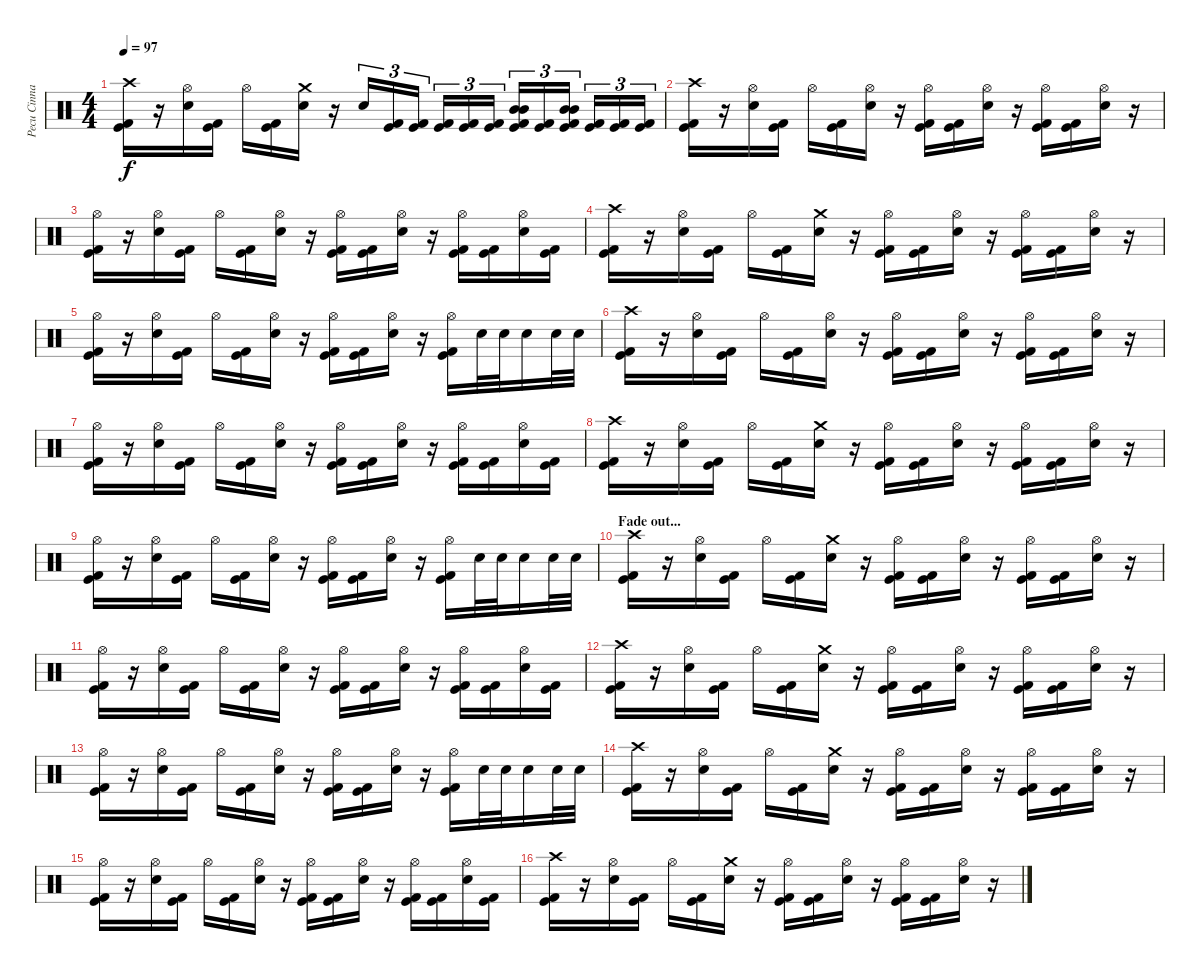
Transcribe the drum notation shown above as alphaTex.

\track ("Pecu Cinnari" "Pecu Cinna") {instrument percussion}
\staff {score}
\articulation defaults
\ts (4 4)
\tempo 97
\clef neutral
\ks c
("Crash high (hit)" "Kick (hit)" "Kick (hit) 2").16{dy f} r.16 ("Hi-Hat (open)" "Electric Snare (hit)").16 ("Kick (hit)" "Kick (hit) 2").16 "Hi-Hat (open)".16 ("Kick (hit)" "Kick (hit) 2").16 ("Crash medium (hit)" "Electric Snare (hit)").16 r.16 "Electric Snare (hit)".16{tu (3 2)} ("Kick (hit)" "Kick (hit) 2").16{tu (3 2)} ("Kick (hit)" "Kick (hit) 2").16{tu (3 2)} ("Kick (hit)" "Kick (hit) 2").16{tu (3 2)} ("Kick (hit)" "Kick (hit) 2").16{tu (3 2)} ("Kick (hit)" "Kick (hit) 2").16{tu (3 2)} ("Mid Tom (hit)" "Mid Tom (hit)" "Kick (hit)" "Kick (hit) 2").16{tu (3 2)} ("Kick (hit)" "Kick (hit) 2").16{tu (3 2)} ("Mid Tom (hit)" "Mid Tom (hit)" "Kick (hit)" "Kick (hit) 2").16{tu (3 2)} ("Kick (hit)" "Kick (hit) 2").16{tu (3 2)} ("Kick (hit)" "Kick (hit) 2").16{tu (3 2)} ("Kick (hit)" "Kick (hit) 2").16{tu (3 2)} |
("Crash high (hit)" "Kick (hit)" "Kick (hit) 2").16 r.16 ("Hi-Hat (open)" "Electric Snare (hit)").16 ("Kick (hit)" "Kick (hit) 2").16 "Hi-Hat (open)".16 ("Kick (hit)" "Kick (hit) 2").16 ("Hi-Hat (open)" "Electric Snare (hit)").16 r.16 ("Hi-Hat (open)" "Kick (hit)" "Kick (hit) 2").16 ("Kick (hit)" "Kick (hit) 2").16 ("Hi-Hat (open)" "Electric Snare (hit)").16 r.16 ("Hi-Hat (open)" "Kick (hit)" "Kick (hit) 2").16 ("Kick (hit)" "Kick (hit) 2").16 ("Hi-Hat (open)" "Electric Snare (hit)").16 r.16 |
("Hi-Hat (open)" "Kick (hit)" "Kick (hit) 2").16 r.16 ("Hi-Hat (open)" "Electric Snare (hit)").16 ("Kick (hit)" "Kick (hit) 2").16 "Hi-Hat (open)".16 ("Kick (hit)" "Kick (hit) 2").16 ("Hi-Hat (open)" "Electric Snare (hit)").16 r.16 ("Hi-Hat (open)" "Kick (hit)" "Kick (hit) 2").16 ("Kick (hit)" "Kick (hit) 2").16 ("Hi-Hat (open)" "Electric Snare (hit)").16 r.16 ("Hi-Hat (open)" "Kick (hit)" "Kick (hit) 2").16 ("Kick (hit)" "Kick (hit) 2").16 ("Hi-Hat (open)" "Electric Snare (hit)").16 ("Kick (hit)" "Kick (hit) 2").16 |
("Crash high (hit)" "Kick (hit)" "Kick (hit) 2").16 r.16 ("Hi-Hat (open)" "Electric Snare (hit)").16 ("Kick (hit)" "Kick (hit) 2").16 "Hi-Hat (open)".16 ("Kick (hit)" "Kick (hit) 2").16 ("Crash medium (hit)" "Electric Snare (hit)").16 r.16 ("Hi-Hat (open)" "Kick (hit)" "Kick (hit) 2").16 ("Kick (hit)" "Kick (hit) 2").16 ("Hi-Hat (open)" "Electric Snare (hit)").16 r.16 ("Hi-Hat (open)" "Kick (hit)" "Kick (hit) 2").16 ("Kick (hit)" "Kick (hit) 2").16 ("Hi-Hat (open)" "Electric Snare (hit)").16 r.16 |
("Hi-Hat (open)" "Kick (hit)" "Kick (hit) 2").16 r.16 ("Hi-Hat (open)" "Electric Snare (hit)").16 ("Kick (hit)" "Kick (hit) 2").16 "Hi-Hat (open)".16 ("Kick (hit)" "Kick (hit) 2").16 ("Hi-Hat (open)" "Electric Snare (hit)").16 r.16 ("Hi-Hat (open)" "Kick (hit)" "Kick (hit) 2").16 ("Kick (hit)" "Kick (hit) 2").16 ("Hi-Hat (open)" "Electric Snare (hit)").16 r.16 ("Hi-Hat (open)" "Kick (hit)" "Kick (hit) 2").16 "Electric Snare (hit)".32 "Electric Snare (hit)".32 "Electric Snare (hit)".16 "Electric Snare (hit)".32 "Electric Snare (hit)".32 |
("Crash high (hit)" "Kick (hit)" "Kick (hit) 2").16 r.16 ("Hi-Hat (open)" "Electric Snare (hit)").16 ("Kick (hit)" "Kick (hit) 2").16 "Hi-Hat (open)".16 ("Kick (hit)" "Kick (hit) 2").16 ("Hi-Hat (open)" "Electric Snare (hit)").16 r.16 ("Hi-Hat (open)" "Kick (hit)" "Kick (hit) 2").16 ("Kick (hit)" "Kick (hit) 2").16 ("Hi-Hat (open)" "Electric Snare (hit)").16 r.16 ("Hi-Hat (open)" "Kick (hit)" "Kick (hit) 2").16 ("Kick (hit)" "Kick (hit) 2").16 ("Hi-Hat (open)" "Electric Snare (hit)").16 r.16 |
("Hi-Hat (open)" "Kick (hit)" "Kick (hit) 2").16 r.16 ("Hi-Hat (open)" "Electric Snare (hit)").16 ("Kick (hit)" "Kick (hit) 2").16 "Hi-Hat (open)".16 ("Kick (hit)" "Kick (hit) 2").16 ("Hi-Hat (open)" "Electric Snare (hit)").16 r.16 ("Hi-Hat (open)" "Kick (hit)" "Kick (hit) 2").16 ("Kick (hit)" "Kick (hit) 2").16 ("Hi-Hat (open)" "Electric Snare (hit)").16 r.16 ("Hi-Hat (open)" "Kick (hit)" "Kick (hit) 2").16 ("Kick (hit)" "Kick (hit) 2").16 ("Hi-Hat (open)" "Electric Snare (hit)").16 ("Kick (hit)" "Kick (hit) 2").16 |
("Crash high (hit)" "Kick (hit)" "Kick (hit) 2").16 r.16 ("Hi-Hat (open)" "Electric Snare (hit)").16 ("Kick (hit)" "Kick (hit) 2").16 "Hi-Hat (open)".16 ("Kick (hit)" "Kick (hit) 2").16 ("Crash medium (hit)" "Electric Snare (hit)").16 r.16 ("Hi-Hat (open)" "Kick (hit)" "Kick (hit) 2").16 ("Kick (hit)" "Kick (hit) 2").16 ("Hi-Hat (open)" "Electric Snare (hit)").16 r.16 ("Hi-Hat (open)" "Kick (hit)" "Kick (hit) 2").16 ("Kick (hit)" "Kick (hit) 2").16 ("Hi-Hat (open)" "Electric Snare (hit)").16 r.16 |
("Hi-Hat (open)" "Kick (hit)" "Kick (hit) 2").16 r.16 ("Hi-Hat (open)" "Electric Snare (hit)").16 ("Kick (hit)" "Kick (hit) 2").16 "Hi-Hat (open)".16 ("Kick (hit)" "Kick (hit) 2").16 ("Hi-Hat (open)" "Electric Snare (hit)").16 r.16 ("Hi-Hat (open)" "Kick (hit)" "Kick (hit) 2").16 ("Kick (hit)" "Kick (hit) 2").16 ("Hi-Hat (open)" "Electric Snare (hit)").16 r.16 ("Hi-Hat (open)" "Kick (hit)" "Kick (hit) 2").16 "Electric Snare (hit)".32 "Electric Snare (hit)".32 "Electric Snare (hit)".16 "Electric Snare (hit)".32 "Electric Snare (hit)".32 |
\section ("" "Fade out...")
("Crash high (hit)" "Kick (hit)" "Kick (hit) 2").16 r.16 ("Hi-Hat (open)" "Electric Snare (hit)").16 ("Kick (hit)" "Kick (hit) 2").16 "Hi-Hat (open)".16 ("Kick (hit)" "Kick (hit) 2").16 ("Crash medium (hit)" "Electric Snare (hit)").16 r.16 ("Hi-Hat (open)" "Kick (hit)" "Kick (hit) 2").16 ("Kick (hit)" "Kick (hit) 2").16 ("Hi-Hat (open)" "Electric Snare (hit)").16 r.16 ("Hi-Hat (open)" "Kick (hit)" "Kick (hit) 2").16 ("Kick (hit)" "Kick (hit) 2").16 ("Hi-Hat (open)" "Electric Snare (hit)").16 r.16 |
("Hi-Hat (open)" "Kick (hit)" "Kick (hit) 2").16 r.16 ("Hi-Hat (open)" "Electric Snare (hit)").16 ("Kick (hit)" "Kick (hit) 2").16 "Hi-Hat (open)".16 ("Kick (hit)" "Kick (hit) 2").16 ("Hi-Hat (open)" "Electric Snare (hit)").16 r.16 ("Hi-Hat (open)" "Kick (hit)" "Kick (hit) 2").16 ("Kick (hit)" "Kick (hit) 2").16 ("Hi-Hat (open)" "Electric Snare (hit)").16 r.16 ("Hi-Hat (open)" "Kick (hit)" "Kick (hit) 2").16 ("Kick (hit)" "Kick (hit) 2").16 ("Hi-Hat (open)" "Electric Snare (hit)").16 ("Kick (hit)" "Kick (hit) 2").16 |
("Crash high (hit)" "Kick (hit)" "Kick (hit) 2").16 r.16 ("Hi-Hat (open)" "Electric Snare (hit)").16 ("Kick (hit)" "Kick (hit) 2").16 "Hi-Hat (open)".16 ("Kick (hit)" "Kick (hit) 2").16 ("Crash medium (hit)" "Electric Snare (hit)").16 r.16 ("Hi-Hat (open)" "Kick (hit)" "Kick (hit) 2").16 ("Kick (hit)" "Kick (hit) 2").16 ("Hi-Hat (open)" "Electric Snare (hit)").16 r.16 ("Hi-Hat (open)" "Kick (hit)" "Kick (hit) 2").16 ("Kick (hit)" "Kick (hit) 2").16 ("Hi-Hat (open)" "Electric Snare (hit)").16 r.16 |
("Hi-Hat (open)" "Kick (hit)" "Kick (hit) 2").16 r.16 ("Hi-Hat (open)" "Electric Snare (hit)").16 ("Kick (hit)" "Kick (hit) 2").16 "Hi-Hat (open)".16 ("Kick (hit)" "Kick (hit) 2").16 ("Hi-Hat (open)" "Electric Snare (hit)").16 r.16 ("Hi-Hat (open)" "Kick (hit)" "Kick (hit) 2").16 ("Kick (hit)" "Kick (hit) 2").16 ("Hi-Hat (open)" "Electric Snare (hit)").16 r.16 ("Hi-Hat (open)" "Kick (hit)" "Kick (hit) 2").16 "Electric Snare (hit)".32 "Electric Snare (hit)".32 "Electric Snare (hit)".16 "Electric Snare (hit)".32 "Electric Snare (hit)".32 |
("Crash high (hit)" "Kick (hit)" "Kick (hit) 2").16 r.16 ("Hi-Hat (open)" "Electric Snare (hit)").16 ("Kick (hit)" "Kick (hit) 2").16 "Hi-Hat (open)".16 ("Kick (hit)" "Kick (hit) 2").16 ("Crash medium (hit)" "Electric Snare (hit)").16 r.16 ("Hi-Hat (open)" "Kick (hit)" "Kick (hit) 2").16 ("Kick (hit)" "Kick (hit) 2").16 ("Hi-Hat (open)" "Electric Snare (hit)").16 r.16 ("Hi-Hat (open)" "Kick (hit)" "Kick (hit) 2").16 ("Kick (hit)" "Kick (hit) 2").16 ("Hi-Hat (open)" "Electric Snare (hit)").16 r.16 |
("Hi-Hat (open)" "Kick (hit)" "Kick (hit) 2").16 r.16 ("Hi-Hat (open)" "Electric Snare (hit)").16 ("Kick (hit)" "Kick (hit) 2").16 "Hi-Hat (open)".16 ("Kick (hit)" "Kick (hit) 2").16 ("Hi-Hat (open)" "Electric Snare (hit)").16 r.16 ("Hi-Hat (open)" "Kick (hit)" "Kick (hit) 2").16 ("Kick (hit)" "Kick (hit) 2").16 ("Hi-Hat (open)" "Electric Snare (hit)").16 r.16 ("Hi-Hat (open)" "Kick (hit)" "Kick (hit) 2").16 ("Kick (hit)" "Kick (hit) 2").16 ("Hi-Hat (open)" "Electric Snare (hit)").16 ("Kick (hit)" "Kick (hit) 2").16 |
("Crash high (hit)" "Kick (hit)" "Kick (hit) 2").16 r.16 ("Hi-Hat (open)" "Electric Snare (hit)").16 ("Kick (hit)" "Kick (hit) 2").16 "Hi-Hat (open)".16 ("Kick (hit)" "Kick (hit) 2").16 ("Crash medium (hit)" "Electric Snare (hit)").16 r.16 ("Hi-Hat (open)" "Kick (hit)" "Kick (hit) 2").16 ("Kick (hit)" "Kick (hit) 2").16 ("Hi-Hat (open)" "Electric Snare (hit)").16 r.16 ("Hi-Hat (open)" "Kick (hit)" "Kick (hit) 2").16 ("Kick (hit)" "Kick (hit) 2").16 ("Hi-Hat (open)" "Electric Snare (hit)").16 r.16
